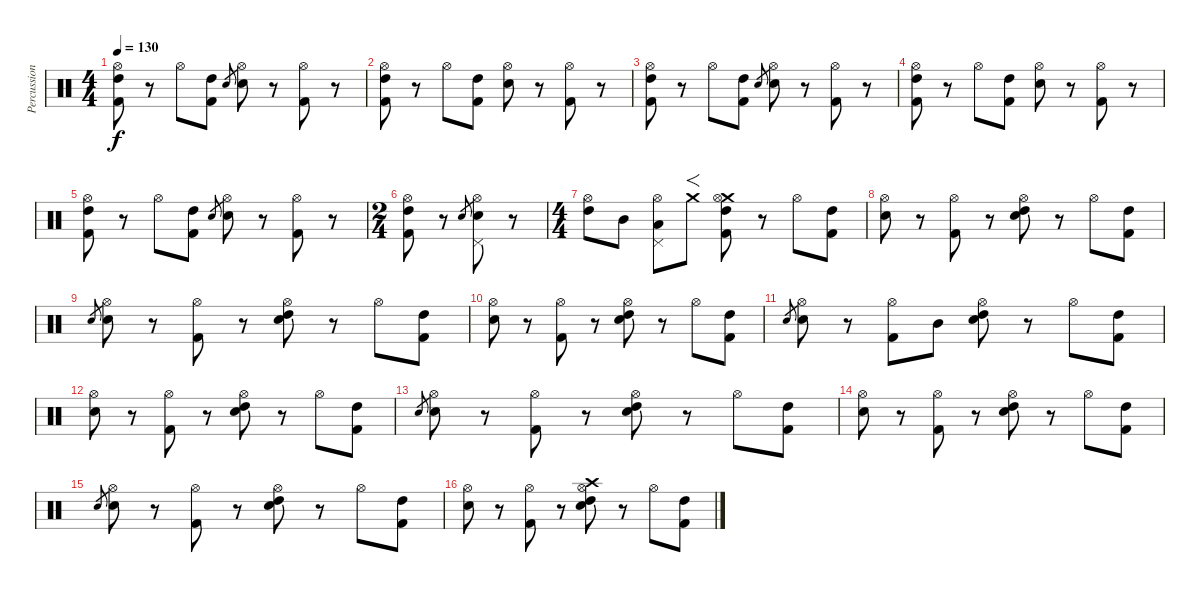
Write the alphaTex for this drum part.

\track ("Percussion" "Percussion") {instrument percussion}
\staff {score}
\articulation defaults
\ts (4 4)
\tempo 130
\clef neutral
\ks c
("Hi-Hat (open)" "High Tom (hit)" "Kick (hit) 2").8{dy f} r.8 "Hi-Hat (open)".8 ("High Tom (hit)" "Kick (hit) 2").8 "Snare (hit) 2".8{gr} ("Hi-Hat (open)" "Snare (hit) 2").8 r.8 ("Hi-Hat (open)" "Kick (hit) 2").8 r.8 |
("Hi-Hat (open)" "High Tom (hit)" "Kick (hit) 2").8 r.8 "Hi-Hat (open)".8 ("High Tom (hit)" "Kick (hit) 2").8 ("Hi-Hat (open)" "Snare (hit) 2").8 r.8 ("Hi-Hat (open)" "Kick (hit) 2").8 r.8 |
("Hi-Hat (open)" "High Tom (hit)" "Kick (hit) 2").8 r.8 "Hi-Hat (open)".8 ("High Tom (hit)" "Kick (hit) 2").8 "Snare (hit) 2".8{gr} ("Hi-Hat (open)" "Snare (hit) 2").8 r.8 ("Hi-Hat (open)" "Kick (hit) 2").8 r.8 |
("Hi-Hat (open)" "High Tom (hit)" "Kick (hit) 2").8 r.8 "Hi-Hat (open)".8 ("High Tom (hit)" "Kick (hit) 2").8 ("Hi-Hat (open)" "Snare (hit) 2").8 r.8 ("Hi-Hat (open)" "Kick (hit) 2").8 r.8 |
("Hi-Hat (open)" "High Tom (hit)" "Kick (hit) 2").8 r.8 "Hi-Hat (open)".8 ("High Tom (hit)" "Kick (hit) 2").8 "Snare (hit) 2".8{gr} ("Hi-Hat (open)" "Snare (hit) 2").8 r.8 ("Hi-Hat (open)" "Kick (hit) 2").8 r.8 |
\ts (2 4)
("Hi-Hat (open)" "High Tom (hit)" "Kick (hit) 2").8 r.8 "Snare (hit) 2".8{gr} ("Hi-Hat (open)" "Snare (hit) 2" "Pedal Hi-Hat (hit)").8 r.8 |
\ts (4 4)
("Hi-Hat (open)" "High Tom (hit)").8 "Mid Tom (hit)".8 ("Hi-Hat (open)" "Low Tom (hit)" "Pedal Hi-Hat (hit)").8 "Crash medium (hit)".8{f} ("Crash medium (hit)" "Hi-Hat (open)" "High Tom (hit)" "Kick (hit) 2").8 r.8 "Hi-Hat (open)".8 ("High Tom (hit)" "Kick (hit) 2").8 |
("Hi-Hat (open)" "Snare (hit) 2").8 r.8 ("Hi-Hat (open)" "Kick (hit) 2").8 r.8 ("Hi-Hat (open)" "High Tom (hit)" "Snare (hit) 2").8 r.8 "Hi-Hat (open)".8 ("High Tom (hit)" "Kick (hit) 2").8 |
"Snare (hit) 2".8{gr} ("Hi-Hat (open)" "Snare (hit) 2").8 r.8 ("Hi-Hat (open)" "Kick (hit) 2").8 r.8 ("Hi-Hat (open)" "High Tom (hit)" "Snare (hit) 2").8 r.8 "Hi-Hat (open)".8 ("High Tom (hit)" "Kick (hit) 2").8 |
("Hi-Hat (open)" "Snare (hit) 2").8 r.8 ("Hi-Hat (open)" "Kick (hit) 2").8 r.8 ("Hi-Hat (open)" "High Tom (hit)" "Snare (hit) 2").8 r.8 "Hi-Hat (open)".8 ("High Tom (hit)" "Kick (hit) 2").8 |
"Snare (hit) 2".8{gr} ("Hi-Hat (open)" "Snare (hit) 2").8 r.8 ("Hi-Hat (open)" "Kick (hit) 2").8 "Mid Tom (hit)".8 ("Hi-Hat (open)" "High Tom (hit)" "Snare (hit) 2").8 r.8 "Hi-Hat (open)".8 ("High Tom (hit)" "Kick (hit) 2").8 |
("Hi-Hat (open)" "Snare (hit) 2").8 r.8 ("Hi-Hat (open)" "Kick (hit) 2").8 r.8 ("Hi-Hat (open)" "High Tom (hit)" "Snare (hit) 2").8 r.8 "Hi-Hat (open)".8 ("High Tom (hit)" "Kick (hit) 2").8 |
"Snare (hit) 2".8{gr} ("Hi-Hat (open)" "Snare (hit) 2").8 r.8 ("Hi-Hat (open)" "Kick (hit) 2").8 r.8 ("Hi-Hat (open)" "High Tom (hit)" "Snare (hit) 2").8 r.8 "Hi-Hat (open)".8 ("High Tom (hit)" "Kick (hit) 2").8 |
("Hi-Hat (open)" "Snare (hit) 2").8 r.8 ("Hi-Hat (open)" "Kick (hit) 2").8 r.8 ("Hi-Hat (open)" "High Tom (hit)" "Snare (hit) 2").8 r.8 "Hi-Hat (open)".8 ("High Tom (hit)" "Kick (hit) 2").8 |
"Snare (hit) 2".8{gr} ("Hi-Hat (open)" "Snare (hit) 2").8 r.8 ("Hi-Hat (open)" "Kick (hit) 2").8 r.8 ("Hi-Hat (open)" "High Tom (hit)" "Snare (hit) 2").8 r.8 "Hi-Hat (open)".8 ("High Tom (hit)" "Kick (hit) 2").8 |
("Hi-Hat (open)" "Snare (hit) 2").8 r.8 ("Hi-Hat (open)" "Kick (hit) 2").8 r.8 ("Crash high (hit)" "Hi-Hat (open)" "High Tom (hit)" "Snare (hit) 2").8 r.8 "Hi-Hat (open)".8 ("High Tom (hit)" "Kick (hit) 2").8
